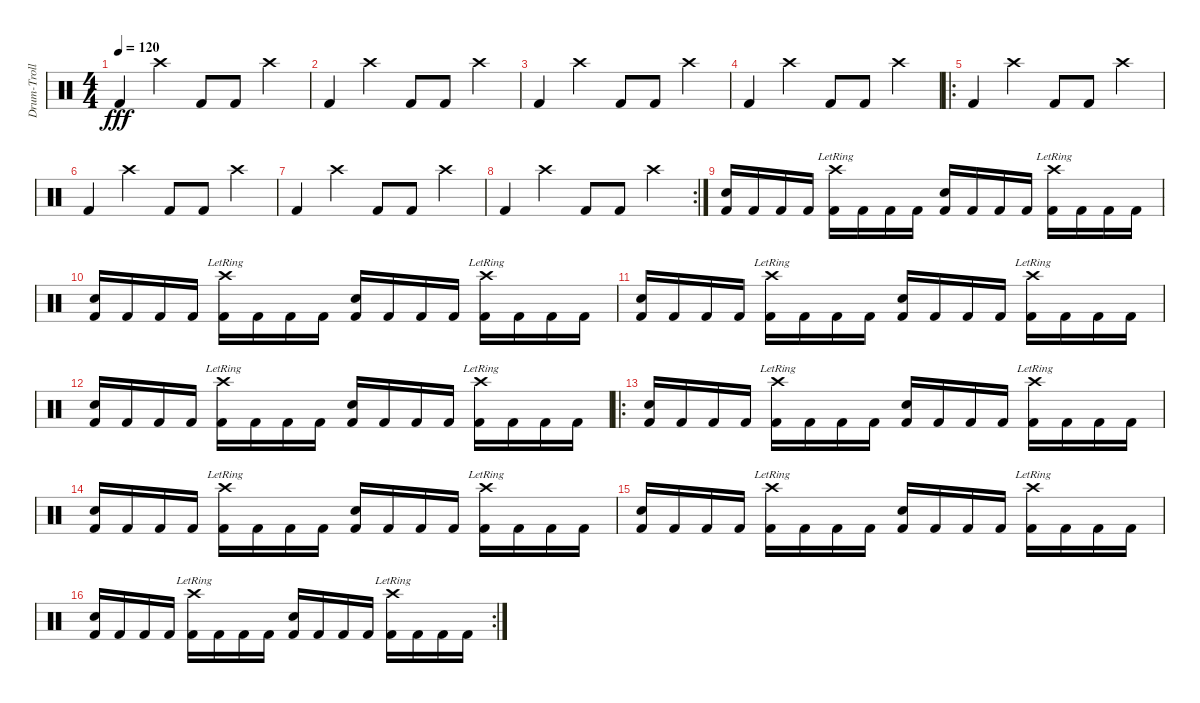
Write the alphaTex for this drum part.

\track ("Drum-Troll" "Drum-Troll") {instrument percussion}
\staff {score}
\articulation defaults
\ts (4 4)
\tempo 120
\clef neutral
\ks c "Kick (hit) 2".4{dy fff} "Crash high (hit)".4 "Kick (hit) 2".8 "Kick (hit) 2".8 "Crash high (hit)".4
|
"Kick (hit) 2".4 "Crash high (hit)".4 "Kick (hit) 2".8 "Kick (hit) 2".8 "Crash high (hit)".4 |
"Kick (hit) 2".4 "Crash high (hit)".4 "Kick (hit) 2".8 "Kick (hit) 2".8 "Crash high (hit)".4 |
"Kick (hit) 2".4 "Crash high (hit)".4 "Kick (hit) 2".8 "Kick (hit) 2".8 "Crash high (hit)".4 |
\ro "Kick (hit) 2".4 "Crash high (hit)".4 "Kick (hit) 2".8 "Kick (hit) 2".8 "Crash high (hit)".4
|
"Kick (hit) 2".4 "Crash high (hit)".4 "Kick (hit) 2".8 "Kick (hit) 2".8 "Crash high (hit)".4 |
"Kick (hit) 2".4 "Crash high (hit)".4 "Kick (hit) 2".8 "Kick (hit) 2".8 "Crash high (hit)".4 |
\rc 2 "Kick (hit) 2".4 "Crash high (hit)".4 "Kick (hit) 2".8 "Kick (hit) 2".8 "Crash high (hit)".4
|
("Kick (hit) 2" "Electric Snare (hit)").16 "Kick (hit) 2".16 "Kick (hit) 2".16 "Kick (hit) 2".16 ("Kick (hit) 2" "Crash high (hit)"{lr}).16 "Kick (hit) 2".16 "Kick (hit) 2".16 "Kick (hit) 2".16 ("Kick (hit) 2" "Electric Snare (hit)").16 "Kick (hit) 2".16 "Kick (hit) 2".16 "Kick (hit) 2".16 ("Kick (hit) 2" "Crash high (hit)"{lr}).16 "Kick (hit) 2".16 "Kick (hit) 2".16 "Kick (hit) 2".16 |
("Kick (hit) 2" "Electric Snare (hit)").16 "Kick (hit) 2".16 "Kick (hit) 2".16 "Kick (hit) 2".16 ("Kick (hit) 2" "Crash high (hit)"{lr}).16 "Kick (hit) 2".16 "Kick (hit) 2".16 "Kick (hit) 2".16 ("Kick (hit) 2" "Electric Snare (hit)").16 "Kick (hit) 2".16 "Kick (hit) 2".16 "Kick (hit) 2".16 ("Kick (hit) 2" "Crash high (hit)"{lr}).16 "Kick (hit) 2".16 "Kick (hit) 2".16 "Kick (hit) 2".16 |
("Kick (hit) 2" "Electric Snare (hit)").16 "Kick (hit) 2".16 "Kick (hit) 2".16 "Kick (hit) 2".16 ("Kick (hit) 2" "Crash high (hit)"{lr}).16 "Kick (hit) 2".16 "Kick (hit) 2".16 "Kick (hit) 2".16 ("Kick (hit) 2" "Electric Snare (hit)").16 "Kick (hit) 2".16 "Kick (hit) 2".16 "Kick (hit) 2".16 ("Kick (hit) 2" "Crash high (hit)"{lr}).16 "Kick (hit) 2".16 "Kick (hit) 2".16 "Kick (hit) 2".16 |
("Kick (hit) 2" "Electric Snare (hit)").16 "Kick (hit) 2".16 "Kick (hit) 2".16 "Kick (hit) 2".16 ("Kick (hit) 2" "Crash high (hit)"{lr}).16 "Kick (hit) 2".16 "Kick (hit) 2".16 "Kick (hit) 2".16 ("Kick (hit) 2" "Electric Snare (hit)").16 "Kick (hit) 2".16 "Kick (hit) 2".16 "Kick (hit) 2".16 ("Kick (hit) 2" "Crash high (hit)"{lr}).16 "Kick (hit) 2".16 "Kick (hit) 2".16 "Kick (hit) 2".16 |
\ro
("Kick (hit) 2" "Electric Snare (hit)").16 "Kick (hit) 2".16 "Kick (hit) 2".16 "Kick (hit) 2".16 ("Kick (hit) 2" "Crash high (hit)"{lr}).16 "Kick (hit) 2".16 "Kick (hit) 2".16 "Kick (hit) 2".16 ("Kick (hit) 2" "Electric Snare (hit)").16 "Kick (hit) 2".16 "Kick (hit) 2".16 "Kick (hit) 2".16 ("Kick (hit) 2" "Crash high (hit)"{lr}).16 "Kick (hit) 2".16 "Kick (hit) 2".16 "Kick (hit) 2".16 |
("Kick (hit) 2" "Electric Snare (hit)").16 "Kick (hit) 2".16 "Kick (hit) 2".16 "Kick (hit) 2".16 ("Kick (hit) 2" "Crash high (hit)"{lr}).16 "Kick (hit) 2".16 "Kick (hit) 2".16 "Kick (hit) 2".16 ("Kick (hit) 2" "Electric Snare (hit)").16 "Kick (hit) 2".16 "Kick (hit) 2".16 "Kick (hit) 2".16 ("Kick (hit) 2" "Crash high (hit)"{lr}).16 "Kick (hit) 2".16 "Kick (hit) 2".16 "Kick (hit) 2".16 |
("Kick (hit) 2" "Electric Snare (hit)").16 "Kick (hit) 2".16 "Kick (hit) 2".16 "Kick (hit) 2".16 ("Kick (hit) 2" "Crash high (hit)"{lr}).16 "Kick (hit) 2".16 "Kick (hit) 2".16 "Kick (hit) 2".16 ("Kick (hit) 2" "Electric Snare (hit)").16 "Kick (hit) 2".16 "Kick (hit) 2".16 "Kick (hit) 2".16 ("Kick (hit) 2" "Crash high (hit)"{lr}).16 "Kick (hit) 2".16 "Kick (hit) 2".16 "Kick (hit) 2".16 |
\rc 2
("Kick (hit) 2" "Electric Snare (hit)").16 "Kick (hit) 2".16 "Kick (hit) 2".16 "Kick (hit) 2".16 ("Kick (hit) 2" "Crash high (hit)"{lr}).16 "Kick (hit) 2".16 "Kick (hit) 2".16 "Kick (hit) 2".16 ("Kick (hit) 2" "Electric Snare (hit)").16 "Kick (hit) 2".16 "Kick (hit) 2".16 "Kick (hit) 2".16 ("Kick (hit) 2" "Crash high (hit)"{lr}).16 "Kick (hit) 2".16 "Kick (hit) 2".16 "Kick (hit) 2".16
